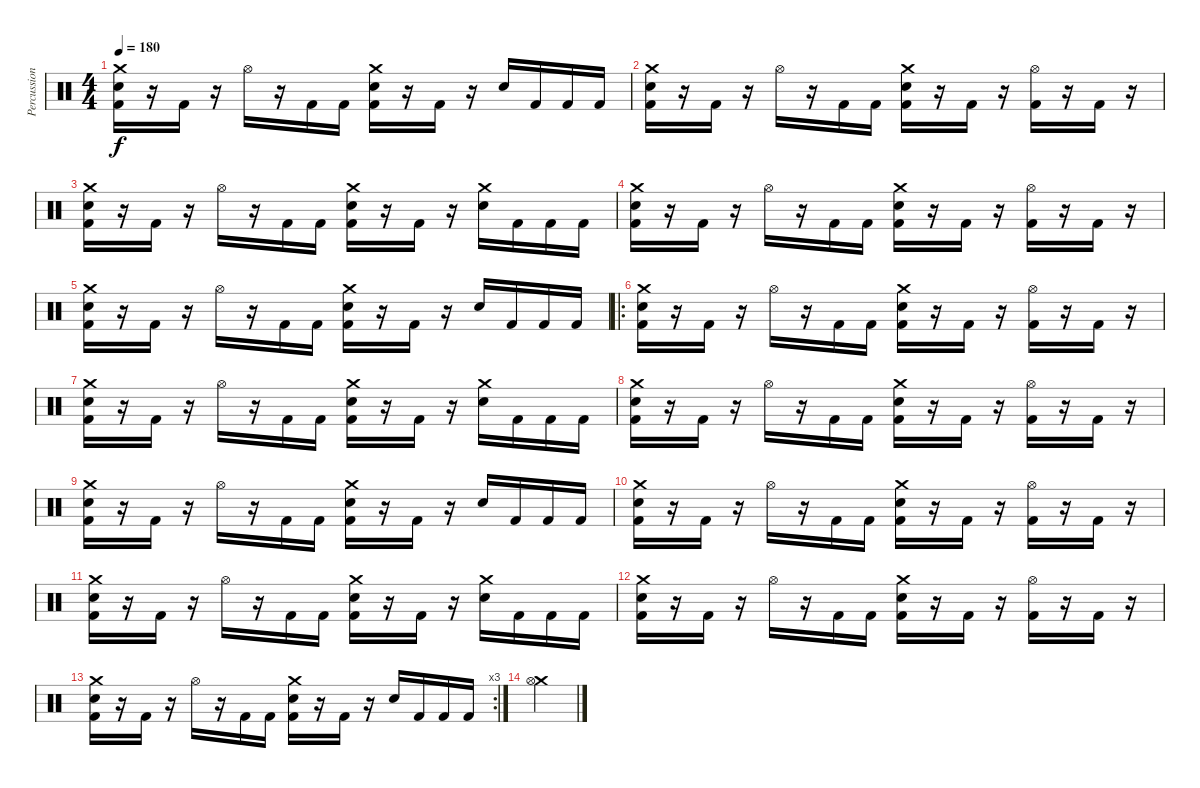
\track ("Percussions" "Percussion") {instrument percussion}
\staff {score}
\articulation defaults
\ts (4 4)
\tempo 180
\clef neutral
\ks c
("Kick (hit) 2" "Snare (hit) 2" "Crash medium (hit)").16{dy f} r.16 "Kick (hit) 2".16 r.16 "Hi-Hat (open)".16 r.16 "Kick (hit) 2".16 "Kick (hit) 2".16 ("Kick (hit) 2" "Snare (hit) 2" "Crash medium (hit)").16 r.16 "Kick (hit) 2".16 r.16 "Snare (hit) 2".16 "Kick (hit) 2".16 "Kick (hit) 2".16 "Kick (hit) 2".16 |
("Kick (hit) 2" "Snare (hit) 2" "Crash medium (hit)").16 r.16 "Kick (hit) 2".16 r.16 "Hi-Hat (open)".16 r.16 "Kick (hit) 2".16 "Kick (hit) 2".16 ("Kick (hit) 2" "Snare (hit) 2" "Crash medium (hit)").16 r.16 "Kick (hit) 2".16 r.16 ("Kick (hit) 2" "Hi-Hat (open)").16 r.16 "Kick (hit) 2".16 r.16 |
("Kick (hit) 2" "Snare (hit) 2" "Crash medium (hit)").16 r.16 "Kick (hit) 2".16 r.16 "Hi-Hat (open)".16 r.16 "Kick (hit) 2".16 "Kick (hit) 2".16 ("Kick (hit) 2" "Snare (hit) 2" "Crash medium (hit)").16 r.16 "Kick (hit) 2".16 r.16 ("Snare (hit) 2" "Crash medium (hit)").16 "Kick (hit) 2".16 "Kick (hit) 2".16 "Kick (hit) 2".16 |
("Kick (hit) 2" "Snare (hit) 2" "Crash medium (hit)").16 r.16 "Kick (hit) 2".16 r.16 "Hi-Hat (open)".16 r.16 "Kick (hit) 2".16 "Kick (hit) 2".16 ("Kick (hit) 2" "Snare (hit) 2" "Crash medium (hit)").16 r.16 "Kick (hit) 2".16 r.16 ("Kick (hit) 2" "Hi-Hat (open)").16 r.16 "Kick (hit) 2".16 r.16 |
("Kick (hit) 2" "Snare (hit) 2" "Crash medium (hit)").16 r.16 "Kick (hit) 2".16 r.16 "Hi-Hat (open)".16 r.16 "Kick (hit) 2".16 "Kick (hit) 2".16 ("Kick (hit) 2" "Snare (hit) 2" "Crash medium (hit)").16 r.16 "Kick (hit) 2".16 r.16 "Snare (hit) 2".16 "Kick (hit) 2".16 "Kick (hit) 2".16 "Kick (hit) 2".16 |
\ro
("Kick (hit) 2" "Snare (hit) 2" "Crash medium (hit)").16 r.16 "Kick (hit) 2".16 r.16 "Hi-Hat (open)".16 r.16 "Kick (hit) 2".16 "Kick (hit) 2".16 ("Kick (hit) 2" "Snare (hit) 2" "Crash medium (hit)").16 r.16 "Kick (hit) 2".16 r.16 ("Kick (hit) 2" "Hi-Hat (open)").16 r.16 "Kick (hit) 2".16 r.16 |
("Kick (hit) 2" "Snare (hit) 2" "Crash medium (hit)").16 r.16 "Kick (hit) 2".16 r.16 "Hi-Hat (open)".16 r.16 "Kick (hit) 2".16 "Kick (hit) 2".16 ("Kick (hit) 2" "Snare (hit) 2" "Crash medium (hit)").16 r.16 "Kick (hit) 2".16 r.16 ("Snare (hit) 2" "Crash medium (hit)").16 "Kick (hit) 2".16 "Kick (hit) 2".16 "Kick (hit) 2".16 |
("Kick (hit) 2" "Snare (hit) 2" "Crash medium (hit)").16 r.16 "Kick (hit) 2".16 r.16 "Hi-Hat (open)".16 r.16 "Kick (hit) 2".16 "Kick (hit) 2".16 ("Kick (hit) 2" "Snare (hit) 2" "Crash medium (hit)").16 r.16 "Kick (hit) 2".16 r.16 ("Kick (hit) 2" "Hi-Hat (open)").16 r.16 "Kick (hit) 2".16 r.16 |
("Kick (hit) 2" "Snare (hit) 2" "Crash medium (hit)").16 r.16 "Kick (hit) 2".16 r.16 "Hi-Hat (open)".16 r.16 "Kick (hit) 2".16 "Kick (hit) 2".16 ("Kick (hit) 2" "Snare (hit) 2" "Crash medium (hit)").16 r.16 "Kick (hit) 2".16 r.16 "Snare (hit) 2".16 "Kick (hit) 2".16 "Kick (hit) 2".16 "Kick (hit) 2".16 |
("Kick (hit) 2" "Snare (hit) 2" "Crash medium (hit)").16 r.16 "Kick (hit) 2".16 r.16 "Hi-Hat (open)".16 r.16 "Kick (hit) 2".16 "Kick (hit) 2".16 ("Kick (hit) 2" "Snare (hit) 2" "Crash medium (hit)").16 r.16 "Kick (hit) 2".16 r.16 ("Kick (hit) 2" "Hi-Hat (open)").16 r.16 "Kick (hit) 2".16 r.16 |
("Kick (hit) 2" "Snare (hit) 2" "Crash medium (hit)").16 r.16 "Kick (hit) 2".16 r.16 "Hi-Hat (open)".16 r.16 "Kick (hit) 2".16 "Kick (hit) 2".16 ("Kick (hit) 2" "Snare (hit) 2" "Crash medium (hit)").16 r.16 "Kick (hit) 2".16 r.16 ("Snare (hit) 2" "Crash medium (hit)").16 "Kick (hit) 2".16 "Kick (hit) 2".16 "Kick (hit) 2".16 |
("Kick (hit) 2" "Snare (hit) 2" "Crash medium (hit)").16 r.16 "Kick (hit) 2".16 r.16 "Hi-Hat (open)".16 r.16 "Kick (hit) 2".16 "Kick (hit) 2".16 ("Kick (hit) 2" "Snare (hit) 2" "Crash medium (hit)").16 r.16 "Kick (hit) 2".16 r.16 ("Kick (hit) 2" "Hi-Hat (open)").16 r.16 "Kick (hit) 2".16 r.16 |
\rc 3
("Kick (hit) 2" "Snare (hit) 2" "Crash medium (hit)").16 r.16 "Kick (hit) 2".16 r.16 "Hi-Hat (open)".16 r.16 "Kick (hit) 2".16 "Kick (hit) 2".16 ("Kick (hit) 2" "Snare (hit) 2" "Crash medium (hit)").16 r.16 "Kick (hit) 2".16 r.16 "Snare (hit) 2".16 "Kick (hit) 2".16 "Kick (hit) 2".16 "Kick (hit) 2".16 |
("Crash medium (hit)" "Hi-Hat (open)").4
